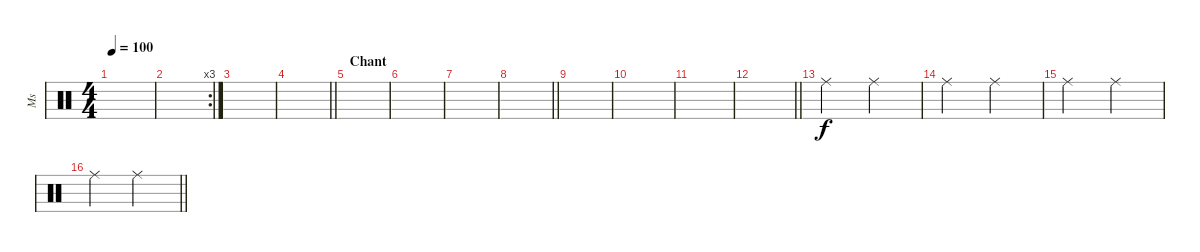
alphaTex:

\track ("Ms" "Ms") {instrument percussion}
\staff {score}
\articulation defaults
\ts (4 4)
\tempo 100
\clef neutral
\ks c
|
\rc 3
|
|
\barLineRight lightlight
|
\section ("" "Chant")
|
|
|
\barLineRight lightlight
|
|
|
|
\barLineRight lightlight
|
"Ride (middle)".2 "Ride (middle)".2 |
"Ride (middle)".2 "Ride (middle)".2 |
"Ride (middle)".2 "Ride (middle)".2 |
\barLineRight lightlight "Ride (middle)".2 "Ride (middle)".2
